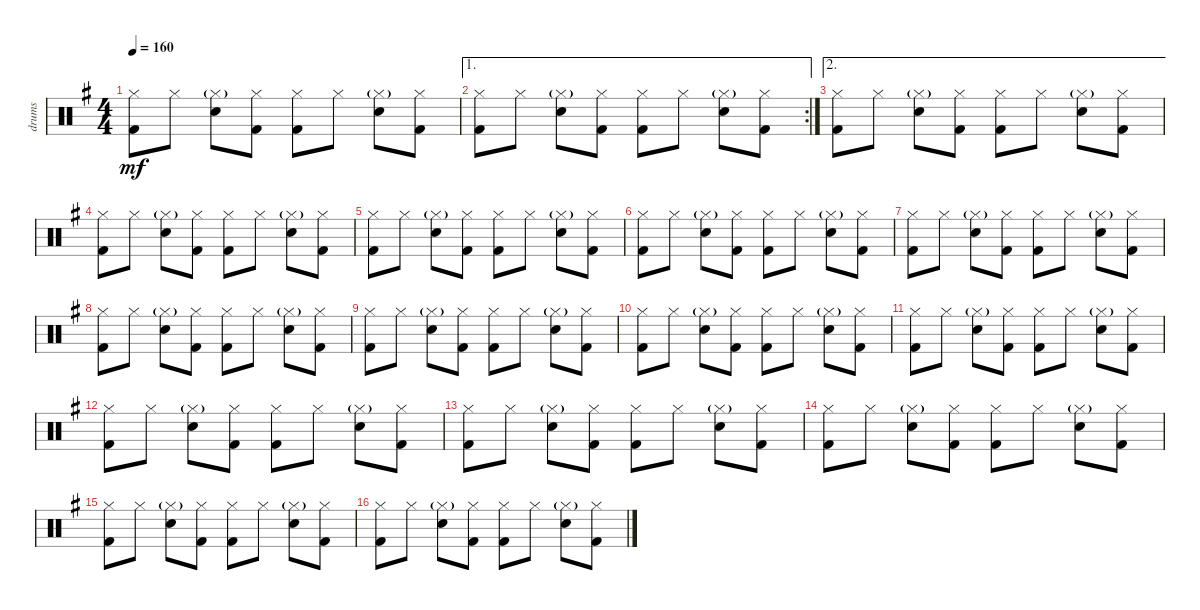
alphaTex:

\track ("drums" "drums") {instrument percussion}
\staff {score}
\articulation defaults
\ts (4 4)
\tempo 160
\clef neutral
\ks g
("Hi-Hat (closed)" "Kick (hit) 2").8{dy mf} "Hi-Hat (closed)".8 ("Hi-Hat (closed)"{g} "Snare (hit) 2").8 ("Hi-Hat (closed)" "Kick (hit) 2").8 ("Hi-Hat (closed)" "Kick (hit) 2").8 "Hi-Hat (closed)".8 ("Hi-Hat (closed)"{g} "Snare (hit) 2").8 ("Hi-Hat (closed)" "Kick (hit) 2").8 |
\ae 1
\rc 2
("Hi-Hat (closed)" "Kick (hit) 2").8 "Hi-Hat (closed)".8 ("Hi-Hat (closed)"{g} "Snare (hit) 2").8 ("Hi-Hat (closed)" "Kick (hit) 2").8 ("Hi-Hat (closed)" "Kick (hit) 2").8 "Hi-Hat (closed)".8 ("Hi-Hat (closed)"{g} "Snare (hit) 2").8 ("Hi-Hat (closed)" "Kick (hit) 2").8 |
\ae 2
("Hi-Hat (closed)" "Kick (hit) 2").8 "Hi-Hat (closed)".8 ("Hi-Hat (closed)"{g} "Snare (hit) 2").8 ("Hi-Hat (closed)" "Kick (hit) 2").8 ("Hi-Hat (closed)" "Kick (hit) 2").8 "Hi-Hat (closed)".8 ("Hi-Hat (closed)"{g} "Snare (hit) 2").8 ("Hi-Hat (closed)" "Kick (hit) 2").8 |
("Hi-Hat (closed)" "Kick (hit) 2").8 "Hi-Hat (closed)".8 ("Hi-Hat (closed)"{g} "Snare (hit) 2").8 ("Hi-Hat (closed)" "Kick (hit) 2").8 ("Hi-Hat (closed)" "Kick (hit) 2").8 "Hi-Hat (closed)".8 ("Hi-Hat (closed)"{g} "Snare (hit) 2").8 ("Hi-Hat (closed)" "Kick (hit) 2").8 |
("Hi-Hat (closed)" "Kick (hit) 2").8 "Hi-Hat (closed)".8 ("Hi-Hat (closed)"{g} "Snare (hit) 2").8 ("Hi-Hat (closed)" "Kick (hit) 2").8 ("Hi-Hat (closed)" "Kick (hit) 2").8 "Hi-Hat (closed)".8 ("Hi-Hat (closed)"{g} "Snare (hit) 2").8 ("Hi-Hat (closed)" "Kick (hit) 2").8 |
("Hi-Hat (closed)" "Kick (hit) 2").8 "Hi-Hat (closed)".8 ("Hi-Hat (closed)"{g} "Snare (hit) 2").8 ("Hi-Hat (closed)" "Kick (hit) 2").8 ("Hi-Hat (closed)" "Kick (hit) 2").8 "Hi-Hat (closed)".8 ("Hi-Hat (closed)"{g} "Snare (hit) 2").8 ("Hi-Hat (closed)" "Kick (hit) 2").8 |
("Hi-Hat (closed)" "Kick (hit) 2").8 "Hi-Hat (closed)".8 ("Hi-Hat (closed)"{g} "Snare (hit) 2").8 ("Hi-Hat (closed)" "Kick (hit) 2").8 ("Hi-Hat (closed)" "Kick (hit) 2").8 "Hi-Hat (closed)".8 ("Hi-Hat (closed)"{g} "Snare (hit) 2").8 ("Hi-Hat (closed)" "Kick (hit) 2").8 |
("Hi-Hat (closed)" "Kick (hit) 2").8 "Hi-Hat (closed)".8 ("Hi-Hat (closed)"{g} "Snare (hit) 2").8 ("Hi-Hat (closed)" "Kick (hit) 2").8 ("Hi-Hat (closed)" "Kick (hit) 2").8 "Hi-Hat (closed)".8 ("Hi-Hat (closed)"{g} "Snare (hit) 2").8 ("Hi-Hat (closed)" "Kick (hit) 2").8 |
("Hi-Hat (closed)" "Kick (hit) 2").8 "Hi-Hat (closed)".8 ("Hi-Hat (closed)"{g} "Snare (hit) 2").8 ("Hi-Hat (closed)" "Kick (hit) 2").8 ("Hi-Hat (closed)" "Kick (hit) 2").8 "Hi-Hat (closed)".8 ("Hi-Hat (closed)"{g} "Snare (hit) 2").8 ("Hi-Hat (closed)" "Kick (hit) 2").8 |
("Hi-Hat (closed)" "Kick (hit) 2").8 "Hi-Hat (closed)".8 ("Hi-Hat (closed)"{g} "Snare (hit) 2").8 ("Hi-Hat (closed)" "Kick (hit) 2").8 ("Hi-Hat (closed)" "Kick (hit) 2").8 "Hi-Hat (closed)".8 ("Hi-Hat (closed)"{g} "Snare (hit) 2").8 ("Hi-Hat (closed)" "Kick (hit) 2").8 |
("Hi-Hat (closed)" "Kick (hit) 2").8 "Hi-Hat (closed)".8 ("Hi-Hat (closed)"{g} "Snare (hit) 2").8 ("Hi-Hat (closed)" "Kick (hit) 2").8 ("Hi-Hat (closed)" "Kick (hit) 2").8 "Hi-Hat (closed)".8 ("Hi-Hat (closed)"{g} "Snare (hit) 2").8 ("Hi-Hat (closed)" "Kick (hit) 2").8 |
("Hi-Hat (closed)" "Kick (hit) 2").8 "Hi-Hat (closed)".8 ("Hi-Hat (closed)"{g} "Snare (hit) 2").8 ("Hi-Hat (closed)" "Kick (hit) 2").8 ("Hi-Hat (closed)" "Kick (hit) 2").8 "Hi-Hat (closed)".8 ("Hi-Hat (closed)"{g} "Snare (hit) 2").8 ("Hi-Hat (closed)" "Kick (hit) 2").8 |
("Hi-Hat (closed)" "Kick (hit) 2").8 "Hi-Hat (closed)".8 ("Hi-Hat (closed)"{g} "Snare (hit) 2").8 ("Hi-Hat (closed)" "Kick (hit) 2").8 ("Hi-Hat (closed)" "Kick (hit) 2").8 "Hi-Hat (closed)".8 ("Hi-Hat (closed)"{g} "Snare (hit) 2").8 ("Hi-Hat (closed)" "Kick (hit) 2").8 |
("Hi-Hat (closed)" "Kick (hit) 2").8 "Hi-Hat (closed)".8 ("Hi-Hat (closed)"{g} "Snare (hit) 2").8 ("Hi-Hat (closed)" "Kick (hit) 2").8 ("Hi-Hat (closed)" "Kick (hit) 2").8 "Hi-Hat (closed)".8 ("Hi-Hat (closed)"{g} "Snare (hit) 2").8 ("Hi-Hat (closed)" "Kick (hit) 2").8 |
("Hi-Hat (closed)" "Kick (hit) 2").8 "Hi-Hat (closed)".8 ("Hi-Hat (closed)"{g} "Snare (hit) 2").8 ("Hi-Hat (closed)" "Kick (hit) 2").8 ("Hi-Hat (closed)" "Kick (hit) 2").8 "Hi-Hat (closed)".8 ("Hi-Hat (closed)"{g} "Snare (hit) 2").8 ("Hi-Hat (closed)" "Kick (hit) 2").8 |
("Hi-Hat (closed)" "Kick (hit) 2").8 "Hi-Hat (closed)".8 ("Hi-Hat (closed)"{g} "Snare (hit) 2").8 ("Hi-Hat (closed)" "Kick (hit) 2").8 ("Hi-Hat (closed)" "Kick (hit) 2").8 "Hi-Hat (closed)".8 ("Hi-Hat (closed)"{g} "Snare (hit) 2").8 ("Hi-Hat (closed)" "Kick (hit) 2").8
